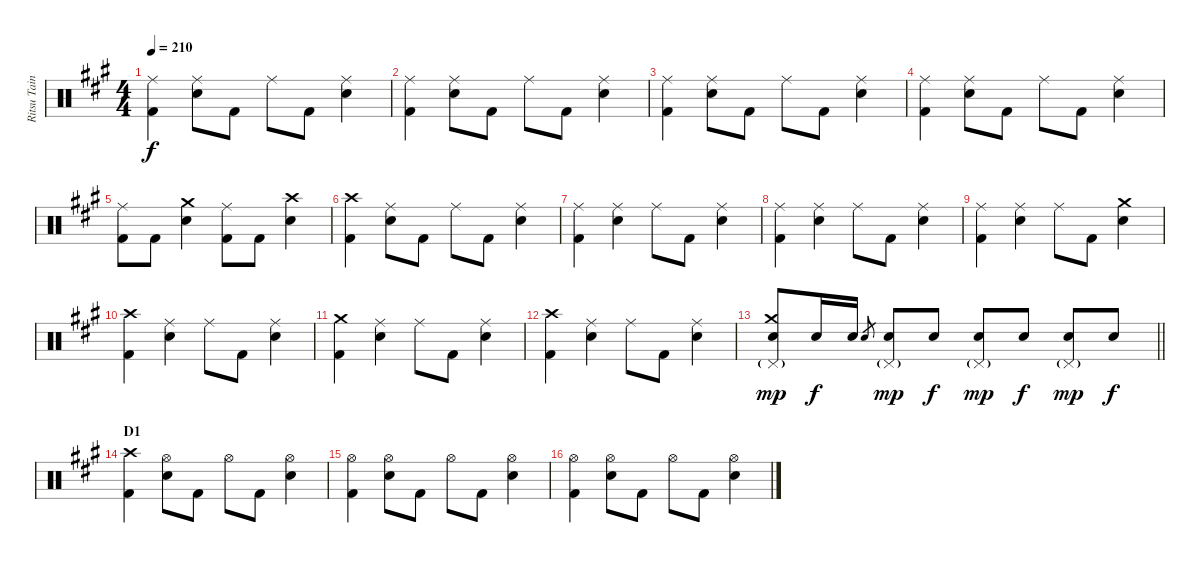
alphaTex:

\track ("Ritsu Tainaka" "Ritsu Tain") {instrument percussion}
\staff {score}
\articulation defaults
\ts (4 4)
\tempo 210
\clef neutral
\ks a
("Ride (middle)" "Kick (hit) 2").4{dy f} ("Ride (middle)" "Electric Snare (hit)").8 "Kick (hit) 2".8 "Ride (middle)".8 "Kick (hit) 2".8 ("Ride (middle)" "Electric Snare (hit)").4 |
("Ride (middle)" "Kick (hit) 2").4 ("Ride (middle)" "Electric Snare (hit)").8 "Kick (hit) 2".8 "Ride (middle)".8 "Kick (hit) 2".8 ("Ride (middle)" "Electric Snare (hit)").4 |
("Ride (middle)" "Kick (hit) 2").4 ("Ride (middle)" "Electric Snare (hit)").8 "Kick (hit) 2".8 "Ride (middle)".8 "Kick (hit) 2".8 ("Ride (middle)" "Electric Snare (hit)").4 |
("Ride (middle)" "Kick (hit) 2").4 ("Ride (middle)" "Electric Snare (hit)").8 "Kick (hit) 2".8 "Ride (middle)".8 "Kick (hit) 2".8 ("Ride (middle)" "Electric Snare (hit)").4 |
("Ride (middle)" "Kick (hit) 2").8 "Kick (hit) 2".8 ("Crash medium (hit)" "Electric Snare (hit)").4 ("Ride (middle)" "Kick (hit) 2").8 "Kick (hit) 2".8 ("Crash high (hit)" "Electric Snare (hit)").4 |
("Crash high (hit)" "Kick (hit) 2").4 ("Ride (middle)" "Electric Snare (hit)").8 "Kick (hit) 2".8 "Ride (middle)".8 "Kick (hit) 2".8 ("Ride (middle)" "Electric Snare (hit)").4 |
("Ride (middle)" "Kick (hit) 2").4 ("Ride (middle)" "Electric Snare (hit)").4 "Ride (middle)".8 "Kick (hit) 2".8 ("Ride (middle)" "Electric Snare (hit)").4 |
("Ride (middle)" "Kick (hit) 2").4 ("Ride (middle)" "Electric Snare (hit)").4 "Ride (middle)".8 "Kick (hit) 2".8 ("Ride (middle)" "Electric Snare (hit)").4 |
("Ride (middle)" "Kick (hit) 2").4 ("Ride (middle)" "Electric Snare (hit)").4 "Ride (middle)".8 "Kick (hit) 2".8 ("Crash medium (hit)" "Electric Snare (hit)").4 |
("Crash high (hit)" "Kick (hit) 2").4 ("Ride (middle)" "Electric Snare (hit)").4 "Ride (middle)".8 "Kick (hit) 2".8 ("Ride (middle)" "Electric Snare (hit)").4 |
("Crash medium (hit)" "Kick (hit) 2").4 ("Ride (middle)" "Electric Snare (hit)").4 "Ride (middle)".8 "Kick (hit) 2".8 ("Ride (middle)" "Electric Snare (hit)").4 |
("Crash high (hit)" "Kick (hit) 2").4 ("Ride (middle)" "Electric Snare (hit)").4 "Ride (middle)".8 "Kick (hit) 2".8 ("Ride (middle)" "Electric Snare (hit)").4 |
\barLineRight lightlight
("Crash medium (hit)" "Pedal Hi-Hat (hit)"{g} "Electric Snare (hit)").8{dy mp} "Electric Snare (hit)".16{dy f} "Electric Snare (hit)".16 "Electric Snare (hit)".8{gr} ("Pedal Hi-Hat (hit)"{g} "Electric Snare (hit)").8{dy mp} "Electric Snare (hit)".8{dy f} ("Pedal Hi-Hat (hit)"{g} "Electric Snare (hit)").8{dy mp} "Electric Snare (hit)".8{dy f} ("Pedal Hi-Hat (hit)"{g} "Electric Snare (hit)").8{dy mp} "Electric Snare (hit)".8{dy f} |
\section ("" "D1")
("Crash high (hit)" "Kick (hit) 2").4 ("Hi-Hat (open)" "Electric Snare (hit)").8 "Kick (hit) 2".8 "Hi-Hat (open)".8 "Kick (hit) 2".8 ("Hi-Hat (open)" "Electric Snare (hit)").4 |
("Hi-Hat (open)" "Kick (hit) 2").4 ("Hi-Hat (open)" "Electric Snare (hit)").8 "Kick (hit) 2".8 "Hi-Hat (open)".8 "Kick (hit) 2".8 ("Hi-Hat (open)" "Electric Snare (hit)").4 |
("Hi-Hat (open)" "Kick (hit) 2").4 ("Hi-Hat (open)" "Electric Snare (hit)").8 "Kick (hit) 2".8 "Hi-Hat (open)".8 "Kick (hit) 2".8 ("Hi-Hat (open)" "Electric Snare (hit)").4
